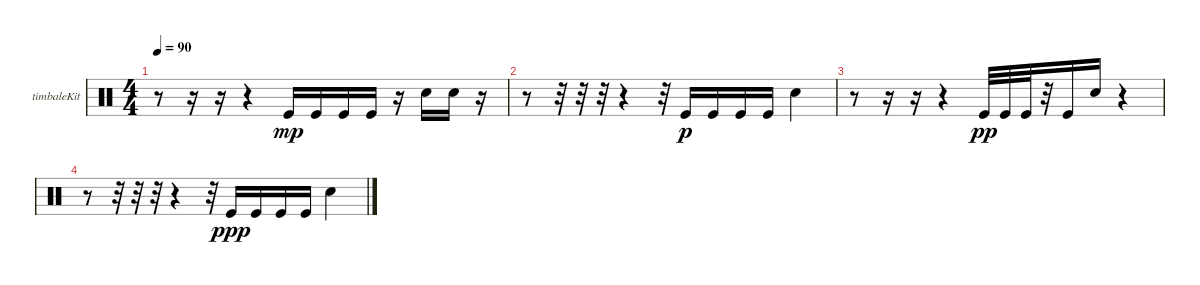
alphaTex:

\defaultSystemsLayout 4
\bracketExtendMode groupsimilarinstruments
\firstSystemTrackNameOrientation horizontal
\otherSystemsTrackNameOrientation horizontal
\track ("Timbale" "timbaleKit") {instrument percussion}
\staff {score}
\articulation defaults
\ts (4 4)
\tempo 90
\clef neutral
\scale
0.333333
\ks c
r.8{dy f} r.16 r.16 r.4 "Kick (hit)".16{dy mp} "Kick (hit)".16 "Kick (hit)".16 "Kick (hit)".16 r.16 "Snare (hit) 2".16 "Snare (hit) 2".16 r.16 |
\scale
0.333333 r.8 r.32 r.32 r.32 r.4 r.32 "Kick (hit)".16{dy p} "Kick (hit)".16 "Kick (hit)".16 "Kick (hit)".16 "Snare (hit) 2".4 |
\scale
0.333333 r.8 r.16 r.16 r.4 "Kick (hit)".32{dy pp} "Kick (hit)".32 "Kick (hit)".32 r.32 "Kick (hit)".16 "Snare (hit) 2".16 r.4 |
\scale
0.333333 r.8 r.32 r.32 r.32 r.4 r.32 "Kick (hit)".16{dy ppp} "Kick (hit)".16 "Kick (hit)".16 "Kick (hit)".16 "Snare (hit) 2".4 |
\scale
0.333333 |
\scale
0.333333 |
\scale
0.333333 |
\scale
0.333333 |
\scale
0.333333 |
\scale
0.333333 |
\scale
0.333333 |
\scale
0.333333 |
\scale
0.333333 |
\scale
0.333333 |
\scale
0.333333 |
\scale
0.333333
